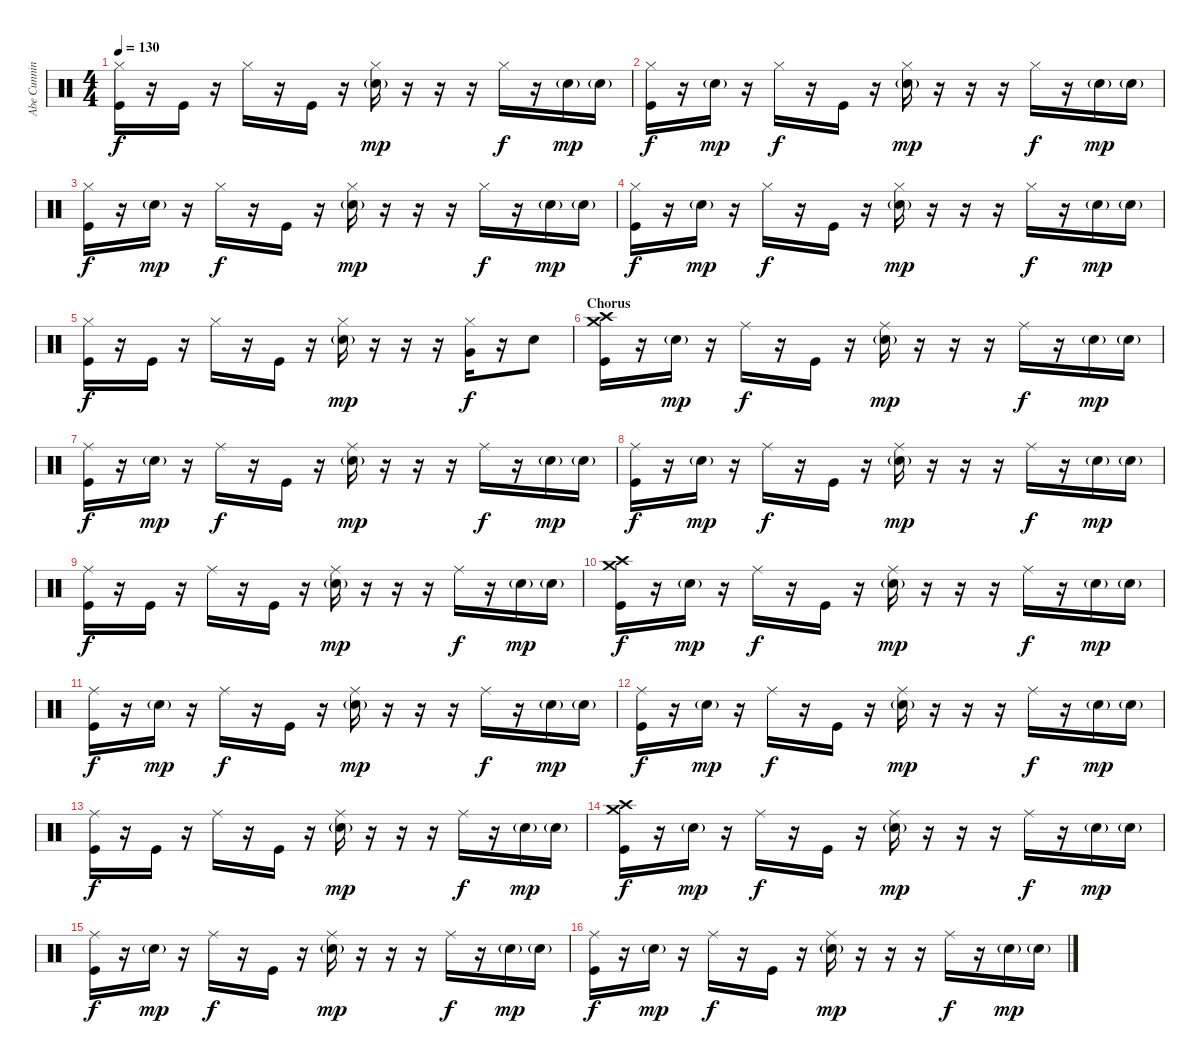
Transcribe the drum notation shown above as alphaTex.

\track ("Abe Cunningham" "Abe Cunnin") {instrument percussion}
\staff {score}
\articulation defaults
\ts (4 4)
\tempo 130
\clef neutral
\ks c
("Hi-Hat (closed)" "Kick (hit)").16{dy f} r.16 "Kick (hit)".16 r.16 "Hi-Hat (closed)".16 r.16 "Kick (hit)".16 r.16 ("Hi-Hat (closed)" "Electric Snare (hit)"{g}).16{dy mp} r.16 r.16 r.16 "Hi-Hat (closed)".16{dy f} r.16 "Electric Snare (hit)"{g}.16{dy mp} "Electric Snare (hit)"{g}.16 |
("Hi-Hat (closed)" "Kick (hit)").16{dy f} r.16 "Electric Snare (hit)"{g}.16{dy mp} r.16 "Hi-Hat (closed)".16{dy f} r.16 "Kick (hit)".16 r.16 ("Hi-Hat (closed)" "Electric Snare (hit)"{g}).16{dy mp} r.16 r.16 r.16 "Hi-Hat (closed)".16{dy f} r.16 "Electric Snare (hit)"{g}.16{dy mp} "Electric Snare (hit)"{g}.16 |
("Hi-Hat (closed)" "Kick (hit)").16{dy f} r.16 "Electric Snare (hit)"{g}.16{dy mp} r.16 "Hi-Hat (closed)".16{dy f} r.16 "Kick (hit)".16 r.16 ("Hi-Hat (closed)" "Electric Snare (hit)"{g}).16{dy mp} r.16 r.16 r.16 "Hi-Hat (closed)".16{dy f} r.16 "Electric Snare (hit)"{g}.16{dy mp} "Electric Snare (hit)"{g}.16 |
("Hi-Hat (closed)" "Kick (hit)").16{dy f} r.16 "Electric Snare (hit)"{g}.16{dy mp} r.16 "Hi-Hat (closed)".16{dy f} r.16 "Kick (hit)".16 r.16 ("Hi-Hat (closed)" "Electric Snare (hit)"{g}).16{dy mp} r.16 r.16 r.16 "Hi-Hat (closed)".16{dy f} r.16 "Electric Snare (hit)"{g}.16{dy mp} "Electric Snare (hit)"{g}.16 |
("Hi-Hat (closed)" "Kick (hit)").16{dy f} r.16 "Kick (hit)".16 r.16 "Hi-Hat (closed)".16 r.16 "Kick (hit)".16 r.16 ("Hi-Hat (closed)" "Electric Snare (hit)"{g}).16{dy mp} r.16 r.16 r.16 ("Hi-Hat (closed)" "Very Low Tom (hit)").16{dy f} r.16 "Electric Snare (hit)".8 |
\section ("" "Chorus")
("Crash high (hit)" "Crash medium (hit)" "Kick (hit)").16 r.16 "Electric Snare (hit)"{g}.16{dy mp} r.16 "Ride (middle)".16{dy f} r.16 "Kick (hit)".16 r.16 ("Ride (middle)" "Electric Snare (hit)"{g}).16{dy mp} r.16 r.16 r.16 "Ride (middle)".16{dy f} r.16 "Electric Snare (hit)"{g}.16{dy mp} "Electric Snare (hit)"{g}.16 |
("Ride (middle)" "Kick (hit)").16{dy f} r.16 "Electric Snare (hit)"{g}.16{dy mp} r.16 "Ride (middle)".16{dy f} r.16 "Kick (hit)".16 r.16 ("Ride (middle)" "Electric Snare (hit)"{g}).16{dy mp} r.16 r.16 r.16 "Ride (middle)".16{dy f} r.16 "Electric Snare (hit)"{g}.16{dy mp} "Electric Snare (hit)"{g}.16 |
("Ride (middle)" "Kick (hit)").16{dy f} r.16 "Electric Snare (hit)"{g}.16{dy mp} r.16 "Ride (middle)".16{dy f} r.16 "Kick (hit)".16 r.16 ("Ride (middle)" "Electric Snare (hit)"{g}).16{dy mp} r.16 r.16 r.16 "Ride (middle)".16{dy f} r.16 "Electric Snare (hit)"{g}.16{dy mp} "Electric Snare (hit)"{g}.16 |
("Ride (middle)" "Kick (hit)").16{dy f} r.16 "Kick (hit)".16 r.16 "Ride (middle)".16 r.16 "Kick (hit)".16 r.16 ("Ride (middle)" "Electric Snare (hit)"{g}).16{dy mp} r.16 r.16 r.16 "Ride (middle)".16{dy f} r.16 "Electric Snare (hit)"{g}.16{dy mp} "Electric Snare (hit)"{g}.16 |
("Crash high (hit)" "Crash medium (hit)" "Kick (hit)").16{dy f} r.16 "Electric Snare (hit)"{g}.16{dy mp} r.16 "Ride (middle)".16{dy f} r.16 "Kick (hit)".16 r.16 ("Ride (middle)" "Electric Snare (hit)"{g}).16{dy mp} r.16 r.16 r.16 "Ride (middle)".16{dy f} r.16 "Electric Snare (hit)"{g}.16{dy mp} "Electric Snare (hit)"{g}.16 |
("Ride (middle)" "Kick (hit)").16{dy f} r.16 "Electric Snare (hit)"{g}.16{dy mp} r.16 "Ride (middle)".16{dy f} r.16 "Kick (hit)".16 r.16 ("Ride (middle)" "Electric Snare (hit)"{g}).16{dy mp} r.16 r.16 r.16 "Ride (middle)".16{dy f} r.16 "Electric Snare (hit)"{g}.16{dy mp} "Electric Snare (hit)"{g}.16 |
("Ride (middle)" "Kick (hit)").16{dy f} r.16 "Electric Snare (hit)"{g}.16{dy mp} r.16 "Ride (middle)".16{dy f} r.16 "Kick (hit)".16 r.16 ("Ride (middle)" "Electric Snare (hit)"{g}).16{dy mp} r.16 r.16 r.16 "Ride (middle)".16{dy f} r.16 "Electric Snare (hit)"{g}.16{dy mp} "Electric Snare (hit)"{g}.16 |
("Ride (middle)" "Kick (hit)").16{dy f} r.16 "Kick (hit)".16 r.16 "Ride (middle)".16 r.16 "Kick (hit)".16 r.16 ("Ride (middle)" "Electric Snare (hit)"{g}).16{dy mp} r.16 r.16 r.16 "Ride (middle)".16{dy f} r.16 "Electric Snare (hit)"{g}.16{dy mp} "Electric Snare (hit)"{g}.16 |
("Crash high (hit)" "Crash medium (hit)" "Kick (hit)").16{dy f} r.16 "Electric Snare (hit)"{g}.16{dy mp} r.16 "Ride (middle)".16{dy f} r.16 "Kick (hit)".16 r.16 ("Ride (middle)" "Electric Snare (hit)"{g}).16{dy mp} r.16 r.16 r.16 "Ride (middle)".16{dy f} r.16 "Electric Snare (hit)"{g}.16{dy mp} "Electric Snare (hit)"{g}.16 |
("Ride (middle)" "Kick (hit)").16{dy f} r.16 "Electric Snare (hit)"{g}.16{dy mp} r.16 "Ride (middle)".16{dy f} r.16 "Kick (hit)".16 r.16 ("Ride (middle)" "Electric Snare (hit)"{g}).16{dy mp} r.16 r.16 r.16 "Ride (middle)".16{dy f} r.16 "Electric Snare (hit)"{g}.16{dy mp} "Electric Snare (hit)"{g}.16 |
("Ride (middle)" "Kick (hit)").16{dy f} r.16 "Electric Snare (hit)"{g}.16{dy mp} r.16 "Ride (middle)".16{dy f} r.16 "Kick (hit)".16 r.16 ("Ride (middle)" "Electric Snare (hit)"{g}).16{dy mp} r.16 r.16 r.16 "Ride (middle)".16{dy f} r.16 "Electric Snare (hit)"{g}.16{dy mp} "Electric Snare (hit)"{g}.16
